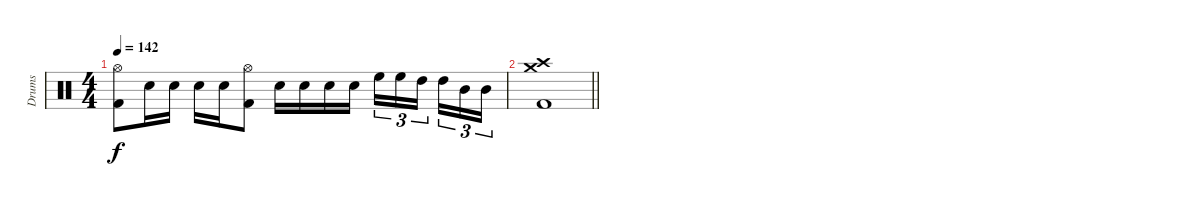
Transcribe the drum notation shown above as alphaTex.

\track ("Drums" "Drums") {instrument percussion}
\staff {score}
\articulation defaults
\ts (4 4)
\tempo 142
\clef neutral
\ks c
("Hi-Hat (open)" "Kick (hit) 2").8{dy f} "Electric Snare (hit)".16 "Electric Snare (hit)".16 "Electric Snare (hit)".16 "Electric Snare (hit)".16 ("Hi-Hat (open)" "Kick (hit) 2").8 "Electric Snare (hit)".16 "Electric Snare (hit)".16 "Electric Snare (hit)".16 "Electric Snare (hit)".16 "High Floor Tom (hit)".16{tu (3 2)} "High Floor Tom (hit)".16{tu (3 2)} "High Tom (hit)".16{tu (3 2)} "High Tom (hit)".16{tu (3 2)} "Mid Tom (hit)".16{tu (3 2)} "Mid Tom (hit)".16{tu (3 2)} |
\barLineRight lightlight
("Crash high (hit)" "Crash medium (hit)" "Kick (hit) 2").1
